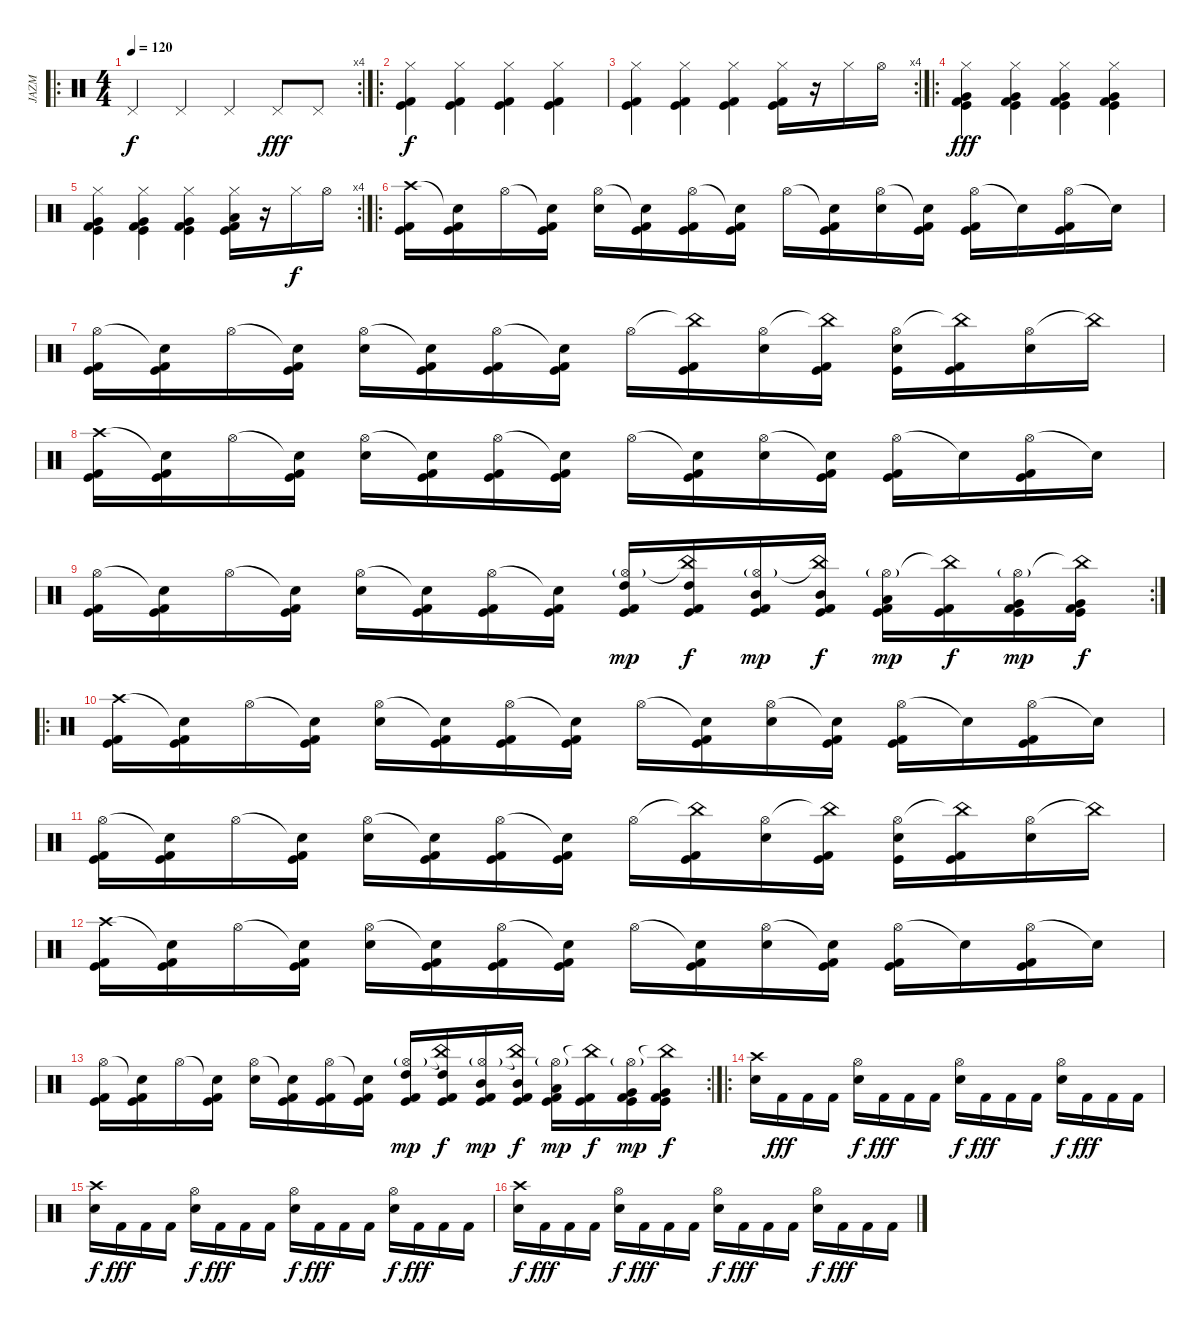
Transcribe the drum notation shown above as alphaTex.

\track ("JAZM" "JAZM") {instrument percussion}
\staff {score}
\articulation defaults
\ro
\rc 4
\ts (4 4)
\tempo 120
\clef neutral
\ks c "Pedal Hi-Hat (hit)".4{dy f} "Pedal Hi-Hat (hit)".4 "Pedal Hi-Hat (hit)".4 "Pedal Hi-Hat (hit)".8{dy fff} "Pedal Hi-Hat (hit)".8
|
\ro
("Hi-Hat (closed)" "Kick (hit)" "Kick (hit) 2").4{dy f} ("Hi-Hat (closed)" "Kick (hit)" "Kick (hit) 2").4 ("Hi-Hat (closed)" "Kick (hit)" "Kick (hit) 2").4 ("Hi-Hat (closed)" "Kick (hit)" "Kick (hit) 2").4 |
\rc 4
("Hi-Hat (closed)" "Kick (hit)" "Kick (hit) 2").4 ("Hi-Hat (closed)" "Kick (hit)" "Kick (hit) 2").4 ("Hi-Hat (closed)" "Kick (hit)" "Kick (hit) 2").4 ("Hi-Hat (closed)" "Kick (hit)" "Kick (hit) 2").16 r.16 "Hi-Hat (closed)".16 "Hi-Hat (open)".16 |
\ro
("Hi-Hat (closed)" "Very Low Tom (hit)" "Kick (hit)" "Kick (hit) 2").4{dy fff} ("Hi-Hat (closed)" "Very Low Tom (hit)" "Kick (hit)" "Kick (hit) 2").4 ("Hi-Hat (closed)" "Very Low Tom (hit)" "Kick (hit)" "Kick (hit) 2").4 ("Hi-Hat (closed)" "Very Low Tom (hit)" "Kick (hit)" "Kick (hit) 2").4 |
\rc 4
("Hi-Hat (closed)" "Very Low Tom (hit)" "Kick (hit)" "Kick (hit) 2").4 ("Hi-Hat (closed)" "Very Low Tom (hit)" "Kick (hit)" "Kick (hit) 2").4 ("Hi-Hat (closed)" "Very Low Tom (hit)" "Kick (hit)" "Kick (hit) 2").4 ("Hi-Hat (closed)" "Low Tom (hit)" "Kick (hit)" "Kick (hit) 2").16 r.16 "Hi-Hat (closed)".16{dy f} "Hi-Hat (open)".16 |
\ro
("Crash high (hit)" "Kick (hit) 2" "Kick (hit)").16 ("Snare (hit)"{t} "Kick (hit) 2" "Kick (hit)").16 "Hi-Hat (open)".16 ("Snare (hit)"{t} "Kick (hit) 2" "Kick (hit)").16 ("Hi-Hat (open)" "Electric Snare (hit)").16 ("Snare (hit)"{t} "Kick (hit) 2" "Kick (hit)").16 ("Hi-Hat (open)" "Kick (hit) 2" "Kick (hit)").16 ("Snare (hit)"{t} "Kick (hit) 2" "Kick (hit)").16 "Hi-Hat (open)".16 ("Snare (hit)"{t} "Kick (hit) 2" "Kick (hit)").16 ("Hi-Hat (open)" "Electric Snare (hit)").16 ("Snare (hit)"{t} "Kick (hit) 2" "Kick (hit)").16 ("Hi-Hat (open)" "Kick (hit) 2" "Kick (hit)").16 "Snare (hit)"{t}.16 ("Hi-Hat (open)" "Kick (hit) 2" "Kick (hit)").16 "Snare (hit)"{t}.16 |
("Hi-Hat (open)" "Kick (hit) 2" "Kick (hit)").16 ("Snare (hit)"{t} "Kick (hit) 2" "Kick (hit)").16 "Hi-Hat (open)".16 ("Snare (hit)"{t} "Kick (hit) 2" "Kick (hit)").16 ("Hi-Hat (open)" "Electric Snare (hit)").16 ("Snare (hit)"{t} "Kick (hit) 2" "Kick (hit)").16 ("Hi-Hat (open)" "Kick (hit) 2" "Kick (hit)").16 ("Snare (hit)"{t} "Kick (hit) 2" "Kick (hit)").16 "Hi-Hat (open)".16 ("China (hit)"{t} "Kick (hit) 2" "Kick (hit)").16 ("Hi-Hat (open)" "Electric Snare (hit)").16 ("China (hit)"{t} "Kick (hit) 2" "Kick (hit)").16 ("Hi-Hat (open)" "Electric Snare (hit)" "Kick (hit)").16 ("China (hit)"{t} "Kick (hit) 2" "Kick (hit)").16 ("Hi-Hat (open)" "Electric Snare (hit)").16 "China (hit)"{t}.16 |
("Crash high (hit)" "Kick (hit) 2" "Kick (hit)").16 ("Snare (hit)"{t} "Kick (hit) 2" "Kick (hit)").16 "Hi-Hat (open)".16 ("Snare (hit)"{t} "Kick (hit) 2" "Kick (hit)").16 ("Hi-Hat (open)" "Electric Snare (hit)").16 ("Snare (hit)"{t} "Kick (hit) 2" "Kick (hit)").16 ("Hi-Hat (open)" "Kick (hit) 2" "Kick (hit)").16 ("Snare (hit)"{t} "Kick (hit) 2" "Kick (hit)").16 "Hi-Hat (open)".16 ("Snare (hit)"{t} "Kick (hit) 2" "Kick (hit)").16 ("Hi-Hat (open)" "Electric Snare (hit)").16 ("Snare (hit)"{t} "Kick (hit) 2" "Kick (hit)").16 ("Hi-Hat (open)" "Kick (hit) 2" "Kick (hit)").16 "Snare (hit)"{t}.16 ("Hi-Hat (open)" "Kick (hit) 2" "Kick (hit)").16 "Snare (hit)"{t}.16 |
\rc 2
("Hi-Hat (open)" "Kick (hit) 2" "Kick (hit)").16 ("Snare (hit)"{t} "Kick (hit) 2" "Kick (hit)").16 "Hi-Hat (open)".16 ("Snare (hit)"{t} "Kick (hit) 2" "Kick (hit)").16 ("Hi-Hat (open)" "Electric Snare (hit)").16 ("Snare (hit)"{t} "Kick (hit) 2" "Kick (hit)").16 ("Hi-Hat (open)" "Kick (hit) 2" "Kick (hit)").16 ("Snare (hit)"{t} "Kick (hit) 2" "Kick (hit)").16 ("Hi-Hat (open)"{g} "High Tom (hit)" "Kick (hit) 2" "Kick (hit)").16{dy mp} ("China (hit)"{t} "High Tom (hit)" "Kick (hit) 2" "Kick (hit)").16{dy f} ("Hi-Hat (open)"{g} "Mid Tom (hit)" "Kick (hit) 2" "Kick (hit)").16{dy mp} ("China (hit)"{t} "Mid Tom (hit)" "Kick (hit) 2" "Kick (hit)").16{dy f} ("Hi-Hat (open)"{g} "Low Tom (hit)" "Kick (hit) 2" "Kick (hit)").16{dy mp} ("China (hit)"{t} "Kick (hit) 2" "Kick (hit)").16{dy f} ("Hi-Hat (open)"{g} "Very Low Tom (hit)" "Kick (hit) 2" "Kick (hit)").16{dy mp} ("China (hit)"{t} "Very Low Tom (hit)" "Kick (hit) 2" "Kick (hit)").16{dy f} |
\ro
("Crash high (hit)" "Kick (hit) 2" "Kick (hit)").16 ("Snare (hit)"{t} "Kick (hit) 2" "Kick (hit)").16 "Hi-Hat (open)".16 ("Snare (hit)"{t} "Kick (hit) 2" "Kick (hit)").16 ("Hi-Hat (open)" "Electric Snare (hit)").16 ("Snare (hit)"{t} "Kick (hit) 2" "Kick (hit)").16 ("Hi-Hat (open)" "Kick (hit) 2" "Kick (hit)").16 ("Snare (hit)"{t} "Kick (hit) 2" "Kick (hit)").16 "Hi-Hat (open)".16 ("Snare (hit)"{t} "Kick (hit) 2" "Kick (hit)").16 ("Hi-Hat (open)" "Electric Snare (hit)").16 ("Snare (hit)"{t} "Kick (hit) 2" "Kick (hit)").16 ("Hi-Hat (open)" "Kick (hit) 2" "Kick (hit)").16 "Snare (hit)"{t}.16 ("Hi-Hat (open)" "Kick (hit) 2" "Kick (hit)").16 "Snare (hit)"{t}.16 |
("Hi-Hat (open)" "Kick (hit) 2" "Kick (hit)").16 ("Snare (hit)"{t} "Kick (hit) 2" "Kick (hit)").16 "Hi-Hat (open)".16 ("Snare (hit)"{t} "Kick (hit) 2" "Kick (hit)").16 ("Hi-Hat (open)" "Electric Snare (hit)").16 ("Snare (hit)"{t} "Kick (hit) 2" "Kick (hit)").16 ("Hi-Hat (open)" "Kick (hit) 2" "Kick (hit)").16 ("Snare (hit)"{t} "Kick (hit) 2" "Kick (hit)").16 "Hi-Hat (open)".16 ("China (hit)"{t} "Kick (hit) 2" "Kick (hit)").16 ("Hi-Hat (open)" "Electric Snare (hit)").16 ("China (hit)"{t} "Kick (hit) 2" "Kick (hit)").16 ("Hi-Hat (open)" "Electric Snare (hit)" "Kick (hit)").16 ("China (hit)"{t} "Kick (hit) 2" "Kick (hit)").16 ("Hi-Hat (open)" "Electric Snare (hit)").16 "China (hit)"{t}.16 |
("Crash high (hit)" "Kick (hit) 2" "Kick (hit)").16 ("Snare (hit)"{t} "Kick (hit) 2" "Kick (hit)").16 "Hi-Hat (open)".16 ("Snare (hit)"{t} "Kick (hit) 2" "Kick (hit)").16 ("Hi-Hat (open)" "Electric Snare (hit)").16 ("Snare (hit)"{t} "Kick (hit) 2" "Kick (hit)").16 ("Hi-Hat (open)" "Kick (hit) 2" "Kick (hit)").16 ("Snare (hit)"{t} "Kick (hit) 2" "Kick (hit)").16 "Hi-Hat (open)".16 ("Snare (hit)"{t} "Kick (hit) 2" "Kick (hit)").16 ("Hi-Hat (open)" "Electric Snare (hit)").16 ("Snare (hit)"{t} "Kick (hit) 2" "Kick (hit)").16 ("Hi-Hat (open)" "Kick (hit) 2" "Kick (hit)").16 "Snare (hit)"{t}.16 ("Hi-Hat (open)" "Kick (hit) 2" "Kick (hit)").16 "Snare (hit)"{t}.16 |
\rc 2
("Hi-Hat (open)" "Kick (hit) 2" "Kick (hit)").16 ("Snare (hit)"{t} "Kick (hit) 2" "Kick (hit)").16 "Hi-Hat (open)".16 ("Snare (hit)"{t} "Kick (hit) 2" "Kick (hit)").16 ("Hi-Hat (open)" "Electric Snare (hit)").16 ("Snare (hit)"{t} "Kick (hit) 2" "Kick (hit)").16 ("Hi-Hat (open)" "Kick (hit) 2" "Kick (hit)").16 ("Snare (hit)"{t} "Kick (hit) 2" "Kick (hit)").16 ("Hi-Hat (open)"{g} "High Tom (hit)" "Kick (hit) 2" "Kick (hit)").16{dy mp} ("China (hit)"{t} "High Tom (hit)" "Kick (hit) 2" "Kick (hit)").16{dy f} ("Hi-Hat (open)"{g} "Mid Tom (hit)" "Kick (hit) 2" "Kick (hit)").16{dy mp} ("China (hit)"{t} "Mid Tom (hit)" "Kick (hit) 2" "Kick (hit)").16{dy f} ("Hi-Hat (open)"{g} "Low Tom (hit)" "Kick (hit) 2" "Kick (hit)").16{dy mp} ("China (hit)"{t} "Kick (hit) 2" "Kick (hit)").16{dy f} ("Hi-Hat (open)"{g} "Very Low Tom (hit)" "Kick (hit) 2" "Kick (hit)").16{dy mp} ("China (hit)"{t} "Very Low Tom (hit)" "Kick (hit) 2" "Kick (hit)").16{dy f} |
\ro
("Crash high (hit)" "Electric Snare (hit)").16 "Kick (hit) 2".16{dy fff} "Kick (hit) 2".16 "Kick (hit) 2".16 ("Hi-Hat (open)" "Electric Snare (hit)").16{dy f} "Kick (hit) 2".16{dy fff} "Kick (hit) 2".16 "Kick (hit) 2".16 ("Hi-Hat (open)" "Electric Snare (hit)").16{dy f} "Kick (hit) 2".16{dy fff} "Kick (hit) 2".16 "Kick (hit) 2".16 ("Hi-Hat (open)" "Electric Snare (hit)").16{dy f} "Kick (hit) 2".16{dy fff} "Kick (hit) 2".16 "Kick (hit) 2".16 |
("Crash high (hit)" "Electric Snare (hit)").16{dy f} "Kick (hit) 2".16{dy fff} "Kick (hit) 2".16 "Kick (hit) 2".16 ("Hi-Hat (open)" "Electric Snare (hit)").16{dy f} "Kick (hit) 2".16{dy fff} "Kick (hit) 2".16 "Kick (hit) 2".16 ("Hi-Hat (open)" "Electric Snare (hit)").16{dy f} "Kick (hit) 2".16{dy fff} "Kick (hit) 2".16 "Kick (hit) 2".16 ("Hi-Hat (open)" "Electric Snare (hit)").16{dy f} "Kick (hit) 2".16{dy fff} "Kick (hit) 2".16 "Kick (hit) 2".16 |
("Crash high (hit)" "Electric Snare (hit)").16{dy f} "Kick (hit) 2".16{dy fff} "Kick (hit) 2".16 "Kick (hit) 2".16 ("Hi-Hat (open)" "Electric Snare (hit)").16{dy f} "Kick (hit) 2".16{dy fff} "Kick (hit) 2".16 "Kick (hit) 2".16 ("Hi-Hat (open)" "Electric Snare (hit)").16{dy f} "Kick (hit) 2".16{dy fff} "Kick (hit) 2".16 "Kick (hit) 2".16 ("Hi-Hat (open)" "Electric Snare (hit)").16{dy f} "Kick (hit) 2".16{dy fff} "Kick (hit) 2".16 "Kick (hit) 2".16
